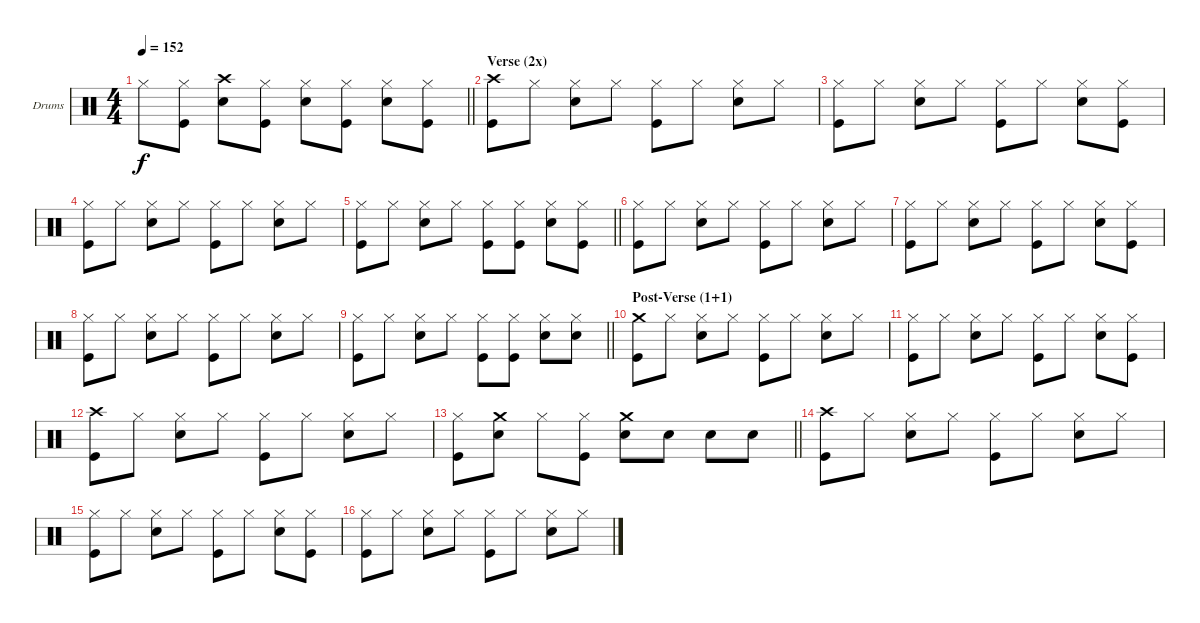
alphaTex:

\bracketExtendMode groupsimilarinstruments
\firstSystemTrackNameOrientation horizontal
\otherSystemsTrackNameOrientation horizontal
\track ("Drumkit" "Drums") {instrument percussion}
\staff {score}
\articulation defaults
\ts (4 4)
\tempo 152
\clef neutral
\barLineRight lightlight
\ks c "Hi-Hat (closed)".8{dy f}
("Hi-Hat (closed)" "Kick (hit)").8 ("Crash high (hit)" "Snare (hit) 2").8 ("Hi-Hat (closed)" "Kick (hit)").8 ("Hi-Hat (closed)" "Snare (hit) 2").8 ("Hi-Hat (closed)" "Kick (hit)").8 ("Hi-Hat (closed)" "Snare (hit) 2").8 ("Hi-Hat (closed)" "Kick (hit)").8 |
\section ("" "Verse (2x)")
("Crash high (hit)" "Kick (hit)").8 "Hi-Hat (closed)".8 ("Hi-Hat (closed)" "Snare (hit) 2").8 "Hi-Hat (closed)".8 ("Hi-Hat (closed)" "Kick (hit)").8 "Hi-Hat (closed)".8 ("Hi-Hat (closed)" "Snare (hit) 2").8 "Hi-Hat (closed)".8 |
("Hi-Hat (closed)" "Kick (hit)").8 "Hi-Hat (closed)".8 ("Hi-Hat (closed)" "Snare (hit) 2").8 "Hi-Hat (closed)".8 ("Hi-Hat (closed)" "Kick (hit)").8 "Hi-Hat (closed)".8 ("Hi-Hat (closed)" "Snare (hit) 2").8 ("Hi-Hat (closed)" "Kick (hit)").8 |
("Hi-Hat (closed)" "Kick (hit)").8 "Hi-Hat (closed)".8 ("Hi-Hat (closed)" "Snare (hit) 2").8 "Hi-Hat (closed)".8 ("Hi-Hat (closed)" "Kick (hit)").8 "Hi-Hat (closed)".8 ("Hi-Hat (closed)" "Snare (hit) 2").8 "Hi-Hat (closed)".8 |
\barLineRight lightlight
("Hi-Hat (closed)" "Kick (hit)").8 "Hi-Hat (closed)".8 ("Hi-Hat (closed)" "Snare (hit) 2").8 "Hi-Hat (closed)".8 ("Hi-Hat (closed)" "Kick (hit)").8 ("Hi-Hat (closed)" "Kick (hit)").8 ("Hi-Hat (closed)" "Snare (hit) 2").8 ("Hi-Hat (closed)" "Kick (hit)").8 |
("Hi-Hat (closed)" "Kick (hit)").8 "Hi-Hat (closed)".8 ("Hi-Hat (closed)" "Snare (hit) 2").8 "Hi-Hat (closed)".8 ("Hi-Hat (closed)" "Kick (hit)").8 "Hi-Hat (closed)".8 ("Hi-Hat (closed)" "Snare (hit) 2").8 "Hi-Hat (closed)".8 |
("Hi-Hat (closed)" "Kick (hit)").8 "Hi-Hat (closed)".8 ("Hi-Hat (closed)" "Snare (hit) 2").8 "Hi-Hat (closed)".8 ("Hi-Hat (closed)" "Kick (hit)").8 "Hi-Hat (closed)".8 ("Hi-Hat (closed)" "Snare (hit) 2").8 ("Hi-Hat (closed)" "Kick (hit)").8 |
("Hi-Hat (closed)" "Kick (hit)").8 "Hi-Hat (closed)".8 ("Hi-Hat (closed)" "Snare (hit) 2").8 "Hi-Hat (closed)".8 ("Hi-Hat (closed)" "Kick (hit)").8 "Hi-Hat (closed)".8 ("Hi-Hat (closed)" "Snare (hit) 2").8 "Hi-Hat (closed)".8 |
\barLineRight lightlight
("Hi-Hat (closed)" "Kick (hit)").8 "Hi-Hat (closed)".8 ("Hi-Hat (closed)" "Snare (hit) 2").8 "Hi-Hat (closed)".8 ("Hi-Hat (closed)" "Kick (hit)").8 ("Hi-Hat (closed)" "Kick (hit)").8 ("Hi-Hat (closed)" "Snare (hit) 2").8 ("Hi-Hat (closed)" "Snare (hit) 2").8 |
\section ("" "Post-Verse (1+1)")
("Crash medium (hit)" "Kick (hit)").8 "Hi-Hat (closed)".8 ("Hi-Hat (closed)" "Snare (hit) 2").8 "Hi-Hat (closed)".8 ("Hi-Hat (closed)" "Kick (hit)").8 "Hi-Hat (closed)".8 ("Hi-Hat (closed)" "Snare (hit) 2").8 "Hi-Hat (closed)".8 |
("Hi-Hat (closed)" "Kick (hit)").8 "Hi-Hat (closed)".8 ("Hi-Hat (closed)" "Snare (hit) 2").8 "Hi-Hat (closed)".8 ("Hi-Hat (closed)" "Kick (hit)").8 "Hi-Hat (closed)".8 ("Hi-Hat (closed)" "Snare (hit) 2").8 ("Hi-Hat (closed)" "Kick (hit)").8 |
("Crash high (hit)" "Kick (hit)").8 "Hi-Hat (closed)".8 ("Hi-Hat (closed)" "Snare (hit) 2").8 "Hi-Hat (closed)".8 ("Hi-Hat (closed)" "Kick (hit)").8 "Hi-Hat (closed)".8 ("Hi-Hat (closed)" "Snare (hit) 2").8 "Hi-Hat (closed)".8 |
\barLineRight lightlight
("Hi-Hat (closed)" "Kick (hit)").8 ("Crash medium (hit)" "Snare (hit) 2").8 "Hi-Hat (closed)".8 ("Hi-Hat (closed)" "Kick (hit)").8 ("Crash medium (hit)" "Snare (hit) 2").8 "Snare (hit) 2".8 "Snare (hit) 2".8 "Snare (hit) 2".8 |
("Crash high (hit)" "Kick (hit)").8 "Hi-Hat (closed)".8 ("Hi-Hat (closed)" "Snare (hit) 2").8 "Hi-Hat (closed)".8 ("Hi-Hat (closed)" "Kick (hit)").8 "Hi-Hat (closed)".8 ("Hi-Hat (closed)" "Snare (hit) 2").8 "Hi-Hat (closed)".8 |
("Hi-Hat (closed)" "Kick (hit)").8 "Hi-Hat (closed)".8 ("Hi-Hat (closed)" "Snare (hit) 2").8 "Hi-Hat (closed)".8 ("Hi-Hat (closed)" "Kick (hit)").8 "Hi-Hat (closed)".8 ("Hi-Hat (closed)" "Snare (hit) 2").8 ("Hi-Hat (closed)" "Kick (hit)").8 |
("Hi-Hat (closed)" "Kick (hit)").8 "Hi-Hat (closed)".8 ("Hi-Hat (closed)" "Snare (hit) 2").8 "Hi-Hat (closed)".8 ("Hi-Hat (closed)" "Kick (hit)").8 "Hi-Hat (closed)".8 ("Hi-Hat (closed)" "Snare (hit) 2").8 "Hi-Hat (closed)".8
